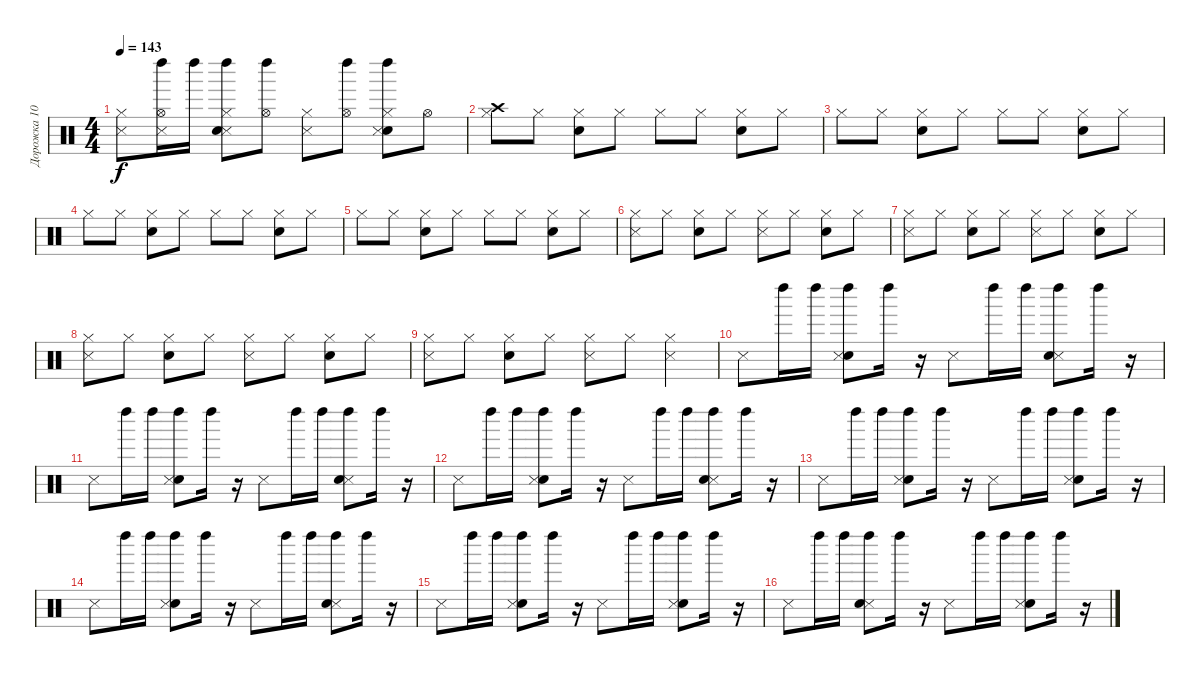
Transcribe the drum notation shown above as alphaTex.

\track ("Дорожка 10" "Дорожка 10") {instrument percussion}
\staff {score}
\articulation defaults
\ts (4 4)
\tempo 143
\clef neutral
\ks c
("Metronome (hit)" "Hi-Hat (closed)").8{dy f} ("Metronome (hit)" "Hi-Hat (open)" "Left Maraca (hit)").16 "Left Maraca (hit)".16 ("Metronome (hit)" "Electric Snare (hit)" "Hi-Hat (closed)" "Left Maraca (hit)").8 ("Hi-Hat (open)" "Left Maraca (hit)").8 ("Metronome (hit)" "Hi-Hat (closed)").8 ("Hi-Hat (open)" "Left Maraca (hit)").8 ("Electric Snare (hit)" "Metronome (hit)" "Hi-Hat (closed)" "Left Maraca (hit)").8 "Hi-Hat (open)".8 |
("Crash high (hit)" "Hi-Hat (closed)").8 "Hi-Hat (closed)".8 ("Electric Snare (hit)" "Hi-Hat (closed)").8 "Hi-Hat (closed)".8 "Hi-Hat (closed)".8 "Hi-Hat (closed)".8 ("Electric Snare (hit)" "Hi-Hat (closed)").8 "Hi-Hat (closed)".8 |
"Hi-Hat (closed)".8 "Hi-Hat (closed)".8 ("Electric Snare (hit)" "Hi-Hat (closed)").8 "Hi-Hat (closed)".8 "Hi-Hat (closed)".8 "Hi-Hat (closed)".8 ("Electric Snare (hit)" "Hi-Hat (closed)").8 "Hi-Hat (closed)".8 |
"Hi-Hat (closed)".8 "Hi-Hat (closed)".8 ("Electric Snare (hit)" "Hi-Hat (closed)").8 "Hi-Hat (closed)".8 "Hi-Hat (closed)".8 "Hi-Hat (closed)".8 ("Electric Snare (hit)" "Hi-Hat (closed)").8 "Hi-Hat (closed)".8 |
"Hi-Hat (closed)".8 "Hi-Hat (closed)".8 ("Electric Snare (hit)" "Hi-Hat (closed)").8 "Hi-Hat (closed)".8 "Hi-Hat (closed)".8 "Hi-Hat (closed)".8 ("Electric Snare (hit)" "Hi-Hat (closed)").8 "Hi-Hat (closed)".8 |
("Metronome (hit)" "Hi-Hat (closed)").8 "Hi-Hat (closed)".8 ("Electric Snare (hit)" "Hi-Hat (closed)").8 "Hi-Hat (closed)".8 ("Metronome (hit)" "Hi-Hat (closed)").8 "Hi-Hat (closed)".8 ("Electric Snare (hit)" "Hi-Hat (closed)").8 "Hi-Hat (closed)".8 |
("Metronome (hit)" "Hi-Hat (closed)").8 "Hi-Hat (closed)".8 ("Electric Snare (hit)" "Hi-Hat (closed)").8 "Hi-Hat (closed)".8 ("Metronome (hit)" "Hi-Hat (closed)").8 "Hi-Hat (closed)".8 ("Electric Snare (hit)" "Hi-Hat (closed)").8 "Hi-Hat (closed)".8 |
("Metronome (hit)" "Hi-Hat (closed)").8 "Hi-Hat (closed)".8 ("Electric Snare (hit)" "Hi-Hat (closed)").8 "Hi-Hat (closed)".8 ("Metronome (hit)" "Hi-Hat (closed)").8 "Hi-Hat (closed)".8 ("Electric Snare (hit)" "Hi-Hat (closed)").8 "Hi-Hat (closed)".8 |
("Metronome (hit)" "Hi-Hat (closed)").8 "Hi-Hat (closed)".8 ("Electric Snare (hit)" "Hi-Hat (closed)").8 "Hi-Hat (closed)".8 ("Metronome (hit)" "Hi-Hat (closed)").8 "Hi-Hat (closed)".8 ("Metronome (hit)" "Hi-Hat (closed)").4 |
"Metronome (hit)".8 "Left Maraca (hit)".16 "Left Maraca (hit)".16 ("Electric Snare (hit)" "Metronome (hit)" "Left Maraca (hit)").8 "Left Maraca (hit)".16 r.16 "Metronome (hit)".8 "Left Maraca (hit)".16 "Left Maraca (hit)".16 ("Metronome (hit)" "Electric Snare (hit)" "Left Maraca (hit)").8 "Left Maraca (hit)".16 r.16 |
"Metronome (hit)".8 "Left Maraca (hit)".16 "Left Maraca (hit)".16 ("Electric Snare (hit)" "Metronome (hit)" "Left Maraca (hit)").8 "Left Maraca (hit)".16 r.16 "Metronome (hit)".8 "Left Maraca (hit)".16 "Left Maraca (hit)".16 ("Metronome (hit)" "Electric Snare (hit)" "Left Maraca (hit)").8 "Left Maraca (hit)".16 r.16 |
"Metronome (hit)".8 "Left Maraca (hit)".16 "Left Maraca (hit)".16 ("Electric Snare (hit)" "Metronome (hit)" "Left Maraca (hit)").8 "Left Maraca (hit)".16 r.16 "Metronome (hit)".8 "Left Maraca (hit)".16 "Left Maraca (hit)".16 ("Metronome (hit)" "Electric Snare (hit)" "Left Maraca (hit)").8 "Left Maraca (hit)".16 r.16 |
"Metronome (hit)".8 "Left Maraca (hit)".16 "Left Maraca (hit)".16 ("Electric Snare (hit)" "Metronome (hit)" "Left Maraca (hit)").8 "Left Maraca (hit)".16 r.16 "Metronome (hit)".8 "Left Maraca (hit)".16 "Left Maraca (hit)".16 ("Electric Snare (hit)" "Metronome (hit)" "Left Maraca (hit)").8 "Left Maraca (hit)".16 r.16 |
"Metronome (hit)".8 "Left Maraca (hit)".16 "Left Maraca (hit)".16 ("Electric Snare (hit)" "Metronome (hit)" "Left Maraca (hit)").8 "Left Maraca (hit)".16 r.16 "Metronome (hit)".8 "Left Maraca (hit)".16 "Left Maraca (hit)".16 ("Metronome (hit)" "Electric Snare (hit)" "Left Maraca (hit)").8 "Left Maraca (hit)".16 r.16 |
"Metronome (hit)".8 "Left Maraca (hit)".16 "Left Maraca (hit)".16 ("Electric Snare (hit)" "Metronome (hit)" "Left Maraca (hit)").8 "Left Maraca (hit)".16 r.16 "Metronome (hit)".8 "Left Maraca (hit)".16 "Left Maraca (hit)".16 ("Electric Snare (hit)" "Metronome (hit)" "Left Maraca (hit)").8 "Left Maraca (hit)".16 r.16 |
"Metronome (hit)".8 "Left Maraca (hit)".16 "Left Maraca (hit)".16 ("Metronome (hit)" "Electric Snare (hit)" "Left Maraca (hit)").8 "Left Maraca (hit)".16 r.16 "Metronome (hit)".8 "Left Maraca (hit)".16 "Left Maraca (hit)".16 ("Electric Snare (hit)" "Metronome (hit)" "Left Maraca (hit)").8 "Left Maraca (hit)".16 r.16
